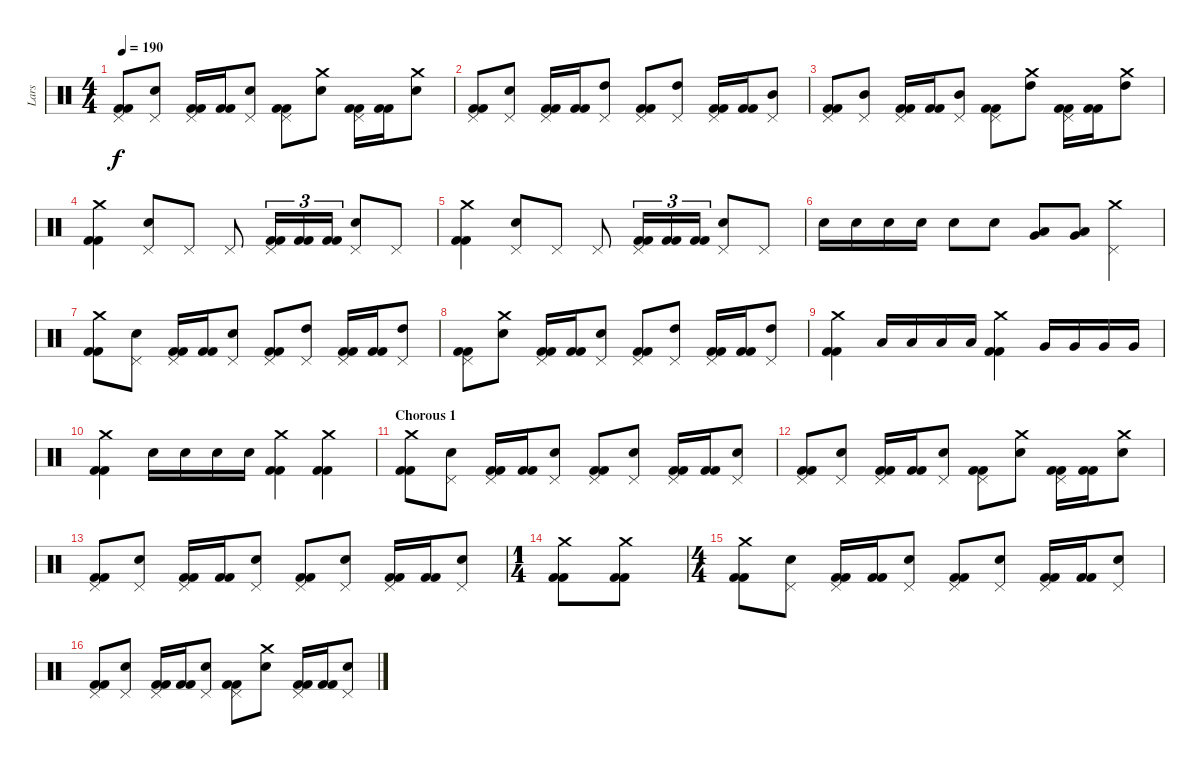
\track ("Lars" "Lars") {instrument percussion}
\staff {score}
\articulation defaults
\ts (4 4)
\tempo 190
\clef neutral
\ks c
("Pedal Hi-Hat (hit)" "Kick (hit) 2" "Kick (hit) 2").8{dy f} ("Pedal Hi-Hat (hit)" "Electric Snare (hit)").8 ("Pedal Hi-Hat (hit)" "Kick (hit) 2" "Kick (hit) 2").16 ("Kick (hit) 2" "Kick (hit) 2").16 ("Pedal Hi-Hat (hit)" "Electric Snare (hit)").8 ("Pedal Hi-Hat (hit)" "Kick (hit) 2" "Kick (hit) 2").8 ("Crash medium (hit)" "Electric Snare (hit)").8 ("Pedal Hi-Hat (hit)" "Kick (hit) 2" "Kick (hit) 2").16 ("Kick (hit) 2" "Kick (hit) 2").16 ("Crash medium (hit)" "Electric Snare (hit)").8 |
("Pedal Hi-Hat (hit)" "Kick (hit) 2" "Kick (hit) 2").8 ("Pedal Hi-Hat (hit)" "Electric Snare (hit)").8 ("Pedal Hi-Hat (hit)" "Kick (hit) 2" "Kick (hit) 2").16 ("Kick (hit) 2" "Kick (hit) 2").16 ("Pedal Hi-Hat (hit)" "High Tom (hit)").8 ("Pedal Hi-Hat (hit)" "Kick (hit) 2" "Kick (hit) 2").8 ("Pedal Hi-Hat (hit)" "High Tom (hit)").8 ("Pedal Hi-Hat (hit)" "Kick (hit) 2" "Kick (hit) 2").16 ("Kick (hit) 2" "Kick (hit) 2").16 ("Pedal Hi-Hat (hit)" "Mid Tom (hit)").8 |
("Pedal Hi-Hat (hit)" "Kick (hit) 2" "Kick (hit) 2").8 ("Pedal Hi-Hat (hit)" "Mid Tom (hit)").8 ("Pedal Hi-Hat (hit)" "Kick (hit) 2" "Kick (hit) 2").16 ("Kick (hit) 2" "Kick (hit) 2").16 ("Pedal Hi-Hat (hit)" "Mid Tom (hit)").8 ("Pedal Hi-Hat (hit)" "Kick (hit) 2" "Kick (hit) 2").8 ("Crash medium (hit)" "High Tom (hit)").8 ("Pedal Hi-Hat (hit)" "Kick (hit) 2" "Kick (hit) 2").16 ("Kick (hit) 2" "Kick (hit) 2").16 ("Crash medium (hit)" "High Tom (hit)").8 |
("Crash medium (hit)" "Kick (hit) 2" "Kick (hit) 2").4 ("Pedal Hi-Hat (hit)" "Electric Snare (hit)").8 "Pedal Hi-Hat (hit)".8 "Pedal Hi-Hat (hit)".8 ("Pedal Hi-Hat (hit)" "Kick (hit) 2" "Kick (hit) 2").16{tu (3 2)} ("Kick (hit) 2" "Kick (hit) 2").16{tu (3 2)} ("Kick (hit) 2" "Kick (hit) 2").16{tu (3 2)} ("Pedal Hi-Hat (hit)" "Electric Snare (hit)").8 "Pedal Hi-Hat (hit)".8 |
("Crash medium (hit)" "Kick (hit) 2" "Kick (hit) 2").4 ("Pedal Hi-Hat (hit)" "Electric Snare (hit)").8 "Pedal Hi-Hat (hit)".8 "Pedal Hi-Hat (hit)".8 ("Pedal Hi-Hat (hit)" "Kick (hit) 2" "Kick (hit) 2").16{tu (3 2)} ("Kick (hit) 2" "Kick (hit) 2").16{tu (3 2)} ("Kick (hit) 2" "Kick (hit) 2").16{tu (3 2)} ("Pedal Hi-Hat (hit)" "Electric Snare (hit)").8 "Pedal Hi-Hat (hit)".8 |
"Electric Snare (hit)".16 "Electric Snare (hit)".16 "Electric Snare (hit)".16 "Electric Snare (hit)".16 "Electric Snare (hit)".8 "Electric Snare (hit)".8 ("Low Tom (hit)" "Very Low Tom (hit)").8 ("Low Tom (hit)" "Very Low Tom (hit)").8 ("Pedal Hi-Hat (hit)" "Crash medium (hit)").4 |
("Crash medium (hit)" "Kick (hit) 2" "Kick (hit) 2").8 ("Pedal Hi-Hat (hit)" "Electric Snare (hit)").8 ("Pedal Hi-Hat (hit)" "Kick (hit) 2" "Kick (hit) 2").16 ("Kick (hit) 2" "Kick (hit) 2").16 ("Pedal Hi-Hat (hit)" "Electric Snare (hit)").8 ("Pedal Hi-Hat (hit)" "Kick (hit) 2" "Kick (hit) 2").8 ("Pedal Hi-Hat (hit)" "High Tom (hit)").8 ("Pedal Hi-Hat (hit)" "Kick (hit) 2" "Kick (hit) 2").16 ("Kick (hit) 2" "Kick (hit) 2").16 ("Pedal Hi-Hat (hit)" "High Tom (hit)").8 |
("Pedal Hi-Hat (hit)" "Kick (hit) 2" "Kick (hit) 2").8 ("Crash medium (hit)" "Electric Snare (hit)").8 ("Pedal Hi-Hat (hit)" "Kick (hit) 2" "Kick (hit) 2").16 ("Kick (hit) 2" "Kick (hit) 2").16 ("Pedal Hi-Hat (hit)" "Electric Snare (hit)").8 ("Pedal Hi-Hat (hit)" "Kick (hit) 2" "Kick (hit) 2").8 ("Pedal Hi-Hat (hit)" "High Tom (hit)").8 ("Pedal Hi-Hat (hit)" "Kick (hit) 2" "Kick (hit) 2").16 ("Kick (hit) 2" "Kick (hit) 2").16 ("Pedal Hi-Hat (hit)" "High Tom (hit)").8 |
("Crash medium (hit)" "Kick (hit) 2" "Kick (hit) 2").4 "Low Tom (hit)".16 "Low Tom (hit)".16 "Low Tom (hit)".16 "Low Tom (hit)".16 ("Crash medium (hit)" "Kick (hit) 2" "Kick (hit) 2").4 "Very Low Tom (hit)".16 "Very Low Tom (hit)".16 "Very Low Tom (hit)".16 "Very Low Tom (hit)".16 |
("Crash medium (hit)" "Kick (hit) 2" "Kick (hit) 2").4 "Electric Snare (hit)".16 "Electric Snare (hit)".16 "Electric Snare (hit)".16 "Electric Snare (hit)".16 ("Crash medium (hit)" "Kick (hit) 2" "Kick (hit) 2").4 ("Crash medium (hit)" "Kick (hit) 2" "Kick (hit) 2").4 |
\section ("" "Chorous 1")
("Crash medium (hit)" "Kick (hit) 2" "Kick (hit) 2").8 ("Pedal Hi-Hat (hit)" "Electric Snare (hit)").8 ("Pedal Hi-Hat (hit)" "Kick (hit) 2" "Kick (hit) 2").16 ("Kick (hit) 2" "Kick (hit) 2").16 ("Pedal Hi-Hat (hit)" "Electric Snare (hit)").8 ("Pedal Hi-Hat (hit)" "Kick (hit) 2" "Kick (hit) 2").8 ("Pedal Hi-Hat (hit)" "Electric Snare (hit)").8 ("Pedal Hi-Hat (hit)" "Kick (hit) 2" "Kick (hit) 2").16 ("Kick (hit) 2" "Kick (hit) 2").16 ("Pedal Hi-Hat (hit)" "Electric Snare (hit)").8 |
("Pedal Hi-Hat (hit)" "Kick (hit) 2" "Kick (hit) 2").8 ("Pedal Hi-Hat (hit)" "Electric Snare (hit)").8 ("Pedal Hi-Hat (hit)" "Kick (hit) 2" "Kick (hit) 2").16 ("Kick (hit) 2" "Kick (hit) 2").16 ("Pedal Hi-Hat (hit)" "Electric Snare (hit)").8 ("Pedal Hi-Hat (hit)" "Kick (hit) 2" "Kick (hit) 2").8 ("Crash medium (hit)" "Electric Snare (hit)").8 ("Pedal Hi-Hat (hit)" "Kick (hit) 2" "Kick (hit) 2").16 ("Kick (hit) 2" "Kick (hit) 2").16 ("Crash medium (hit)" "Electric Snare (hit)").8 |
("Pedal Hi-Hat (hit)" "Kick (hit) 2" "Kick (hit) 2").8 ("Pedal Hi-Hat (hit)" "Electric Snare (hit)").8 ("Pedal Hi-Hat (hit)" "Kick (hit) 2" "Kick (hit) 2").16 ("Kick (hit) 2" "Kick (hit) 2").16 ("Pedal Hi-Hat (hit)" "Electric Snare (hit)").8 ("Pedal Hi-Hat (hit)" "Kick (hit) 2" "Kick (hit) 2").8 ("Pedal Hi-Hat (hit)" "Electric Snare (hit)").8 ("Pedal Hi-Hat (hit)" "Kick (hit) 2" "Kick (hit) 2").16 ("Kick (hit) 2" "Kick (hit) 2").16 ("Pedal Hi-Hat (hit)" "Electric Snare (hit)").8 |
\ts (1 4)
("Crash medium (hit)" "Kick (hit) 2" "Kick (hit) 2").8 ("Crash medium (hit)" "Kick (hit) 2" "Kick (hit) 2").8 |
\ts (4 4)
("Crash medium (hit)" "Kick (hit) 2" "Kick (hit) 2").8 ("Pedal Hi-Hat (hit)" "Electric Snare (hit)").8 ("Pedal Hi-Hat (hit)" "Kick (hit) 2" "Kick (hit) 2").16 ("Kick (hit) 2" "Kick (hit) 2").16 ("Pedal Hi-Hat (hit)" "Electric Snare (hit)").8 ("Pedal Hi-Hat (hit)" "Kick (hit) 2" "Kick (hit) 2").8 ("Pedal Hi-Hat (hit)" "Electric Snare (hit)").8 ("Pedal Hi-Hat (hit)" "Kick (hit) 2" "Kick (hit) 2").16 ("Kick (hit) 2" "Kick (hit) 2").16 ("Pedal Hi-Hat (hit)" "Electric Snare (hit)").8 |
("Pedal Hi-Hat (hit)" "Kick (hit) 2" "Kick (hit) 2").8 ("Pedal Hi-Hat (hit)" "Electric Snare (hit)").8 ("Pedal Hi-Hat (hit)" "Kick (hit) 2" "Kick (hit) 2").16 ("Kick (hit) 2" "Kick (hit) 2").16 ("Pedal Hi-Hat (hit)" "Electric Snare (hit)").8 ("Pedal Hi-Hat (hit)" "Kick (hit) 2" "Kick (hit) 2").8 ("Crash medium (hit)" "Electric Snare (hit)").8 ("Pedal Hi-Hat (hit)" "Kick (hit) 2" "Kick (hit) 2").16 ("Kick (hit) 2" "Kick (hit) 2").16 ("Pedal Hi-Hat (hit)" "Electric Snare (hit)").8
